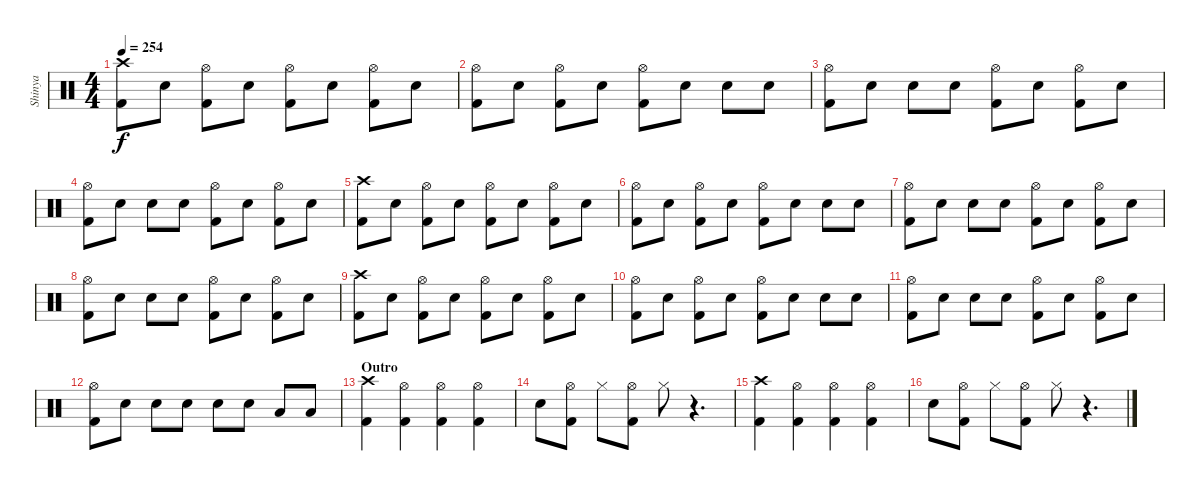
\track ("Shinya" "Shinya") {instrument percussion}
\staff {score}
\articulation defaults
\ts (4 4)
\tempo 254
\clef neutral
\ks c
("Crash high (hit)" "Kick (hit) 2").8{dy f} "Electric Snare (hit)".8 ("Hi-Hat (open)" "Kick (hit) 2").8 "Electric Snare (hit)".8 ("Hi-Hat (open)" "Kick (hit) 2").8 "Electric Snare (hit)".8 ("Hi-Hat (open)" "Kick (hit) 2").8 "Electric Snare (hit)".8 |
("Hi-Hat (open)" "Kick (hit) 2").8 "Electric Snare (hit)".8 ("Hi-Hat (open)" "Kick (hit) 2").8 "Electric Snare (hit)".8 ("Hi-Hat (open)" "Kick (hit) 2").8 "Electric Snare (hit)".8 "Electric Snare (hit)".8 "Electric Snare (hit)".8 |
("Hi-Hat (open)" "Kick (hit) 2").8 "Electric Snare (hit)".8 "Electric Snare (hit)".8 "Electric Snare (hit)".8 ("Hi-Hat (open)" "Kick (hit) 2").8 "Electric Snare (hit)".8 ("Hi-Hat (open)" "Kick (hit) 2").8 "Electric Snare (hit)".8 |
("Hi-Hat (open)" "Kick (hit) 2").8 "Electric Snare (hit)".8 "Electric Snare (hit)".8 "Electric Snare (hit)".8 ("Hi-Hat (open)" "Kick (hit) 2").8 "Electric Snare (hit)".8 ("Hi-Hat (open)" "Kick (hit) 2").8 "Electric Snare (hit)".8 |
("Crash high (hit)" "Kick (hit) 2").8 "Electric Snare (hit)".8 ("Hi-Hat (open)" "Kick (hit) 2").8 "Electric Snare (hit)".8 ("Hi-Hat (open)" "Kick (hit) 2").8 "Electric Snare (hit)".8 ("Hi-Hat (open)" "Kick (hit) 2").8 "Electric Snare (hit)".8 |
("Hi-Hat (open)" "Kick (hit) 2").8 "Electric Snare (hit)".8 ("Hi-Hat (open)" "Kick (hit) 2").8 "Electric Snare (hit)".8 ("Hi-Hat (open)" "Kick (hit) 2").8 "Electric Snare (hit)".8 "Electric Snare (hit)".8 "Electric Snare (hit)".8 |
("Hi-Hat (open)" "Kick (hit) 2").8 "Electric Snare (hit)".8 "Electric Snare (hit)".8 "Electric Snare (hit)".8 ("Hi-Hat (open)" "Kick (hit) 2").8 "Electric Snare (hit)".8 ("Hi-Hat (open)" "Kick (hit) 2").8 "Electric Snare (hit)".8 |
("Hi-Hat (open)" "Kick (hit) 2").8 "Electric Snare (hit)".8 "Electric Snare (hit)".8 "Electric Snare (hit)".8 ("Hi-Hat (open)" "Kick (hit) 2").8 "Electric Snare (hit)".8 ("Hi-Hat (open)" "Kick (hit) 2").8 "Electric Snare (hit)".8 |
("Crash high (hit)" "Kick (hit) 2").8 "Electric Snare (hit)".8 ("Hi-Hat (open)" "Kick (hit) 2").8 "Electric Snare (hit)".8 ("Hi-Hat (open)" "Kick (hit) 2").8 "Electric Snare (hit)".8 ("Hi-Hat (open)" "Kick (hit) 2").8 "Electric Snare (hit)".8 |
("Hi-Hat (open)" "Kick (hit) 2").8 "Electric Snare (hit)".8 ("Hi-Hat (open)" "Kick (hit) 2").8 "Electric Snare (hit)".8 ("Hi-Hat (open)" "Kick (hit) 2").8 "Electric Snare (hit)".8 "Electric Snare (hit)".8 "Electric Snare (hit)".8 |
("Hi-Hat (open)" "Kick (hit) 2").8 "Electric Snare (hit)".8 "Electric Snare (hit)".8 "Electric Snare (hit)".8 ("Hi-Hat (open)" "Kick (hit) 2").8 "Electric Snare (hit)".8 ("Hi-Hat (open)" "Kick (hit) 2").8 "Electric Snare (hit)".8 |
("Hi-Hat (open)" "Kick (hit) 2").8 "Electric Snare (hit)".8 "Electric Snare (hit)".8 "Electric Snare (hit)".8 "Electric Snare (hit)".8 "Electric Snare (hit)".8 "Low Tom (hit)".8 "Low Floor Tom (hit)".8 |
\section ("" "Outro")
("Kick (hit) 2" "Crash high (hit)").4 ("Hi-Hat (open)" "Kick (hit) 2").4 ("Hi-Hat (open)" "Kick (hit) 2").4 ("Hi-Hat (open)" "Kick (hit) 2").4 |
"Electric Snare (hit)".8 ("Hi-Hat (open)" "Kick (hit) 2").8 "Hi-Hat (closed)".8 ("Hi-Hat (open)" "Kick (hit) 2").8 "Hi-Hat (closed)".8 r.4{d} |
("Kick (hit) 2" "Crash high (hit)").4 ("Hi-Hat (open)" "Kick (hit) 2").4 ("Hi-Hat (open)" "Kick (hit) 2").4 ("Hi-Hat (open)" "Kick (hit) 2").4 |
"Electric Snare (hit)".8 ("Hi-Hat (open)" "Kick (hit) 2").8 "Hi-Hat (closed)".8 ("Hi-Hat (open)" "Kick (hit) 2").8 "Hi-Hat (closed)".8 r.4{d}
